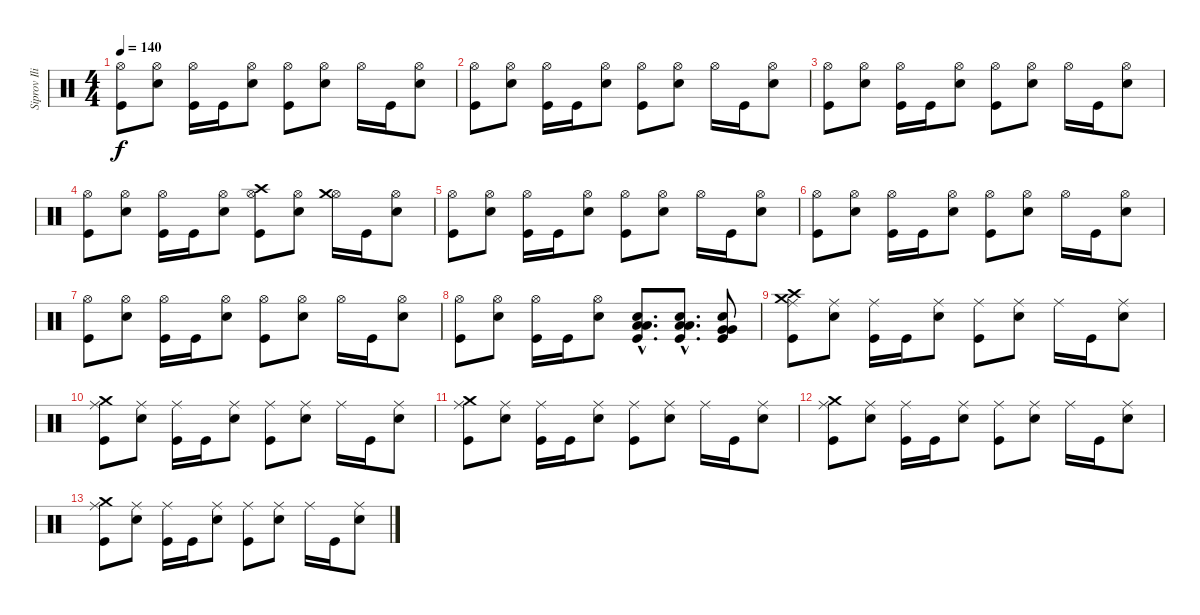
\track ("Siprov Iliya (DRUMS)" "Siprov Ili") {instrument percussion}
\staff {score}
\articulation defaults
\ts (4 4)
\tempo 140
\clef neutral
\ks c
("Hi-Hat (open)" "Kick (hit)").8{dy f} ("Hi-Hat (open)" "Electric Snare (hit)").8 ("Hi-Hat (open)" "Kick (hit)").16 "Kick (hit)".16 ("Hi-Hat (open)" "Electric Snare (hit)").8 ("Hi-Hat (open)" "Kick (hit)").8 ("Hi-Hat (open)" "Electric Snare (hit)").8 "Hi-Hat (open)".16 "Kick (hit)".16 ("Hi-Hat (open)" "Electric Snare (hit)").8 |
("Hi-Hat (open)" "Kick (hit)").8 ("Hi-Hat (open)" "Electric Snare (hit)").8 ("Hi-Hat (open)" "Kick (hit)").16 "Kick (hit)".16 ("Hi-Hat (open)" "Electric Snare (hit)").8 ("Hi-Hat (open)" "Kick (hit)").8 ("Hi-Hat (open)" "Electric Snare (hit)").8 "Hi-Hat (open)".16 "Kick (hit)".16 ("Hi-Hat (open)" "Electric Snare (hit)").8 |
("Hi-Hat (open)" "Kick (hit)").8 ("Hi-Hat (open)" "Electric Snare (hit)").8 ("Hi-Hat (open)" "Kick (hit)").16 "Kick (hit)".16 ("Hi-Hat (open)" "Electric Snare (hit)").8 ("Hi-Hat (open)" "Kick (hit)").8 ("Hi-Hat (open)" "Electric Snare (hit)").8 "Hi-Hat (open)".16 "Kick (hit)".16 ("Hi-Hat (open)" "Electric Snare (hit)").8 |
("Hi-Hat (open)" "Kick (hit)").8 ("Hi-Hat (open)" "Electric Snare (hit)").8 ("Hi-Hat (open)" "Kick (hit)").16 "Kick (hit)".16 ("Hi-Hat (open)" "Electric Snare (hit)").8 ("Hi-Hat (open)" "Crash high (hit)" "Kick (hit)").8 ("Hi-Hat (open)" "Electric Snare (hit)").8 ("Hi-Hat (open)" "Crash medium (hit)").16 "Kick (hit)".16 ("Hi-Hat (open)" "Electric Snare (hit)").8 |
("Hi-Hat (open)" "Kick (hit)").8 ("Hi-Hat (open)" "Electric Snare (hit)").8 ("Hi-Hat (open)" "Kick (hit)").16 "Kick (hit)".16 ("Hi-Hat (open)" "Electric Snare (hit)").8 ("Hi-Hat (open)" "Kick (hit)").8 ("Hi-Hat (open)" "Electric Snare (hit)").8 "Hi-Hat (open)".16 "Kick (hit)".16 ("Hi-Hat (open)" "Electric Snare (hit)").8 |
("Hi-Hat (open)" "Kick (hit)").8 ("Hi-Hat (open)" "Electric Snare (hit)").8 ("Hi-Hat (open)" "Kick (hit)").16 "Kick (hit)".16 ("Hi-Hat (open)" "Electric Snare (hit)").8 ("Hi-Hat (open)" "Kick (hit)").8 ("Hi-Hat (open)" "Electric Snare (hit)").8 "Hi-Hat (open)".16 "Kick (hit)".16 ("Hi-Hat (open)" "Electric Snare (hit)").8 |
("Hi-Hat (open)" "Kick (hit)").8 ("Hi-Hat (open)" "Electric Snare (hit)").8 ("Hi-Hat (open)" "Kick (hit)").16 "Kick (hit)".16 ("Hi-Hat (open)" "Electric Snare (hit)").8 ("Hi-Hat (open)" "Kick (hit)").8 ("Hi-Hat (open)" "Electric Snare (hit)").8 "Hi-Hat (open)".16 "Kick (hit)".16 ("Hi-Hat (open)" "Electric Snare (hit)").8 |
("Hi-Hat (open)" "Kick (hit)").8 ("Hi-Hat (open)" "Electric Snare (hit)").8 ("Hi-Hat (open)" "Kick (hit)").16 "Kick (hit)".16 ("Hi-Hat (open)" "Electric Snare (hit)").8 ("Low Floor Tom (hit)"{hac} "Low Floor Tom (hit)"{hac} "Electric Snare (hit)"{hac} "Kick (hit)"{hac}).8{d} ("Low Floor Tom (hit)"{hac} "Low Floor Tom (hit)"{hac} "Electric Snare (hit)"{hac} "Kick (hit)"{hac}).8{d} ("Very Low Tom (hit)" "Very Low Tom (hit)" "Electric Snare (hit)" "Kick (hit)").8 |
("Ride (middle)" "Crash medium (hit)" "Crash high (hit)" "Kick (hit)").8{volume 0} ("Ride (middle)" "Electric Snare (hit)").8 ("Ride (middle)" "Kick (hit)").16 "Kick (hit)".16 ("Ride (middle)" "Electric Snare (hit)").8 ("Ride (middle)" "Kick (hit)").8 ("Ride (middle)" "Electric Snare (hit)").8 "Ride (middle)".16 "Kick (hit)".16 ("Ride (middle)" "Electric Snare (hit)").8 |
("Ride (middle)" "Crash medium (hit)" "Kick (hit)").8 ("Ride (middle)" "Electric Snare (hit)").8 ("Ride (middle)" "Kick (hit)").16 "Kick (hit)".16 ("Ride (middle)" "Electric Snare (hit)").8 ("Ride (middle)" "Kick (hit)").8 ("Ride (middle)" "Electric Snare (hit)").8 "Ride (middle)".16 "Kick (hit)".16 ("Ride (middle)" "Electric Snare (hit)").8 |
("Ride (middle)" "Crash medium (hit)" "Kick (hit)").8 ("Ride (middle)" "Electric Snare (hit)").8 ("Ride (middle)" "Kick (hit)").16 "Kick (hit)".16 ("Ride (middle)" "Electric Snare (hit)").8 ("Ride (middle)" "Kick (hit)").8 ("Ride (middle)" "Electric Snare (hit)").8 "Ride (middle)".16 "Kick (hit)".16 ("Ride (middle)" "Electric Snare (hit)").8 |
("Ride (middle)" "Crash medium (hit)" "Kick (hit)").8 ("Ride (middle)" "Electric Snare (hit)").8 ("Ride (middle)" "Kick (hit)").16 "Kick (hit)".16 ("Ride (middle)" "Electric Snare (hit)").8 ("Ride (middle)" "Kick (hit)").8 ("Ride (middle)" "Electric Snare (hit)").8 "Ride (middle)".16 "Kick (hit)".16 ("Ride (middle)" "Electric Snare (hit)").8 |
("Ride (middle)" "Crash medium (hit)" "Kick (hit)").8 ("Ride (middle)" "Electric Snare (hit)").8 ("Ride (middle)" "Kick (hit)").16 "Kick (hit)".16 ("Ride (middle)" "Electric Snare (hit)").8 ("Ride (middle)" "Kick (hit)").8 ("Ride (middle)" "Electric Snare (hit)").8 "Ride (middle)".16 "Kick (hit)".16 ("Ride (middle)" "Electric Snare (hit)").8
